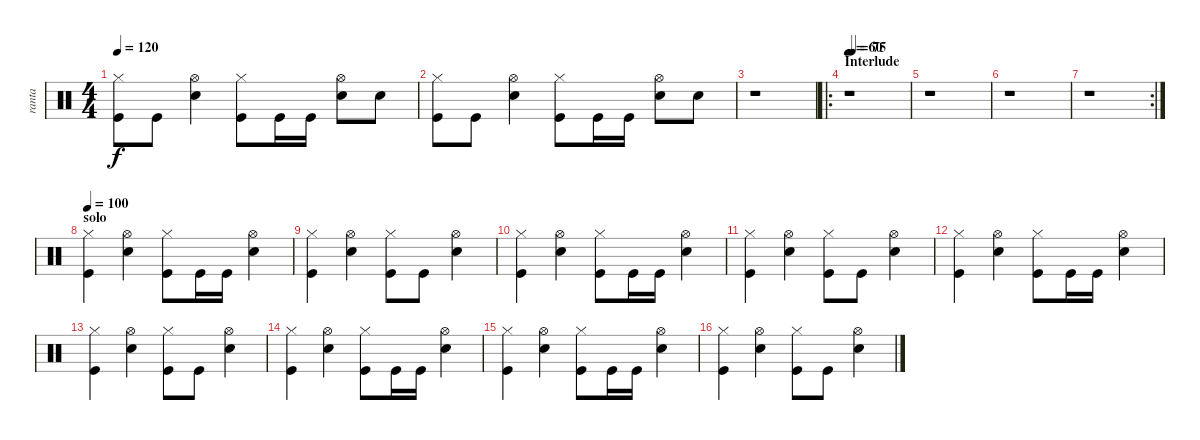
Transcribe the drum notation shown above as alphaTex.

\track ("ranta" "ranta") {instrument percussion}
\staff {score}
\articulation defaults
\ts (4 4)
\tempo 120
\clef neutral
\ks c
("Hi-Hat (closed)" "Kick (hit)").8{dy f} "Kick (hit)".8 ("Hi-Hat (open)" "Snare (hit) 2").4 ("Hi-Hat (closed)" "Kick (hit)").8 "Kick (hit)".16 "Kick (hit)".16 ("Hi-Hat (open)" "Snare (hit) 2").8 "Snare (hit) 2".8 |
("Hi-Hat (closed)" "Kick (hit)").8 "Kick (hit)".8 ("Hi-Hat (open)" "Snare (hit) 2").4 ("Hi-Hat (closed)" "Kick (hit)").8 "Kick (hit)".16 "Kick (hit)".16 ("Hi-Hat (open)" "Snare (hit) 2").8 "Snare (hit) 2".8 |
r.1 |
\ro
\section ("" "Interlude")
\tempo 60
\tempo (75 0.0625)
r.1 |
r.1 |
r.1 |
\rc 2
r.1 |
\section ("" "solo")
\tempo 100
("Hi-Hat (closed)" "Kick (hit)").4 ("Hi-Hat (open)" "Snare (hit) 2").4 ("Hi-Hat (closed)" "Kick (hit)").8 "Kick (hit)".16 "Kick (hit)".16 ("Hi-Hat (open)" "Snare (hit) 2").4 |
("Hi-Hat (closed)" "Kick (hit)").4 ("Hi-Hat (open)" "Snare (hit) 2").4 ("Hi-Hat (closed)" "Kick (hit)").8 "Kick (hit)".8 ("Hi-Hat (open)" "Snare (hit) 2").4 |
("Hi-Hat (closed)" "Kick (hit)").4 ("Hi-Hat (open)" "Snare (hit) 2").4 ("Hi-Hat (closed)" "Kick (hit)").8 "Kick (hit)".16 "Kick (hit)".16 ("Hi-Hat (open)" "Snare (hit) 2").4 |
("Hi-Hat (closed)" "Kick (hit)").4 ("Hi-Hat (open)" "Snare (hit) 2").4 ("Hi-Hat (closed)" "Kick (hit)").8 "Kick (hit)".8 ("Hi-Hat (open)" "Snare (hit) 2").4 |
("Hi-Hat (closed)" "Kick (hit)").4 ("Hi-Hat (open)" "Snare (hit) 2").4 ("Hi-Hat (closed)" "Kick (hit)").8 "Kick (hit)".16 "Kick (hit)".16 ("Hi-Hat (open)" "Snare (hit) 2").4 |
("Hi-Hat (closed)" "Kick (hit)").4 ("Hi-Hat (open)" "Snare (hit) 2").4 ("Hi-Hat (closed)" "Kick (hit)").8 "Kick (hit)".8 ("Hi-Hat (open)" "Snare (hit) 2").4 |
("Hi-Hat (closed)" "Kick (hit)").4 ("Hi-Hat (open)" "Snare (hit) 2").4 ("Hi-Hat (closed)" "Kick (hit)").8 "Kick (hit)".16 "Kick (hit)".16 ("Hi-Hat (open)" "Snare (hit) 2").4 |
("Hi-Hat (closed)" "Kick (hit)").4 ("Hi-Hat (open)" "Snare (hit) 2").4 ("Hi-Hat (closed)" "Kick (hit)").8 "Kick (hit)".16 "Kick (hit)".16 ("Hi-Hat (open)" "Snare (hit) 2").4 |
("Hi-Hat (closed)" "Kick (hit)").4 ("Hi-Hat (open)" "Snare (hit) 2").4 ("Hi-Hat (closed)" "Kick (hit)").8 "Kick (hit)".8 ("Hi-Hat (open)" "Snare (hit) 2").4
